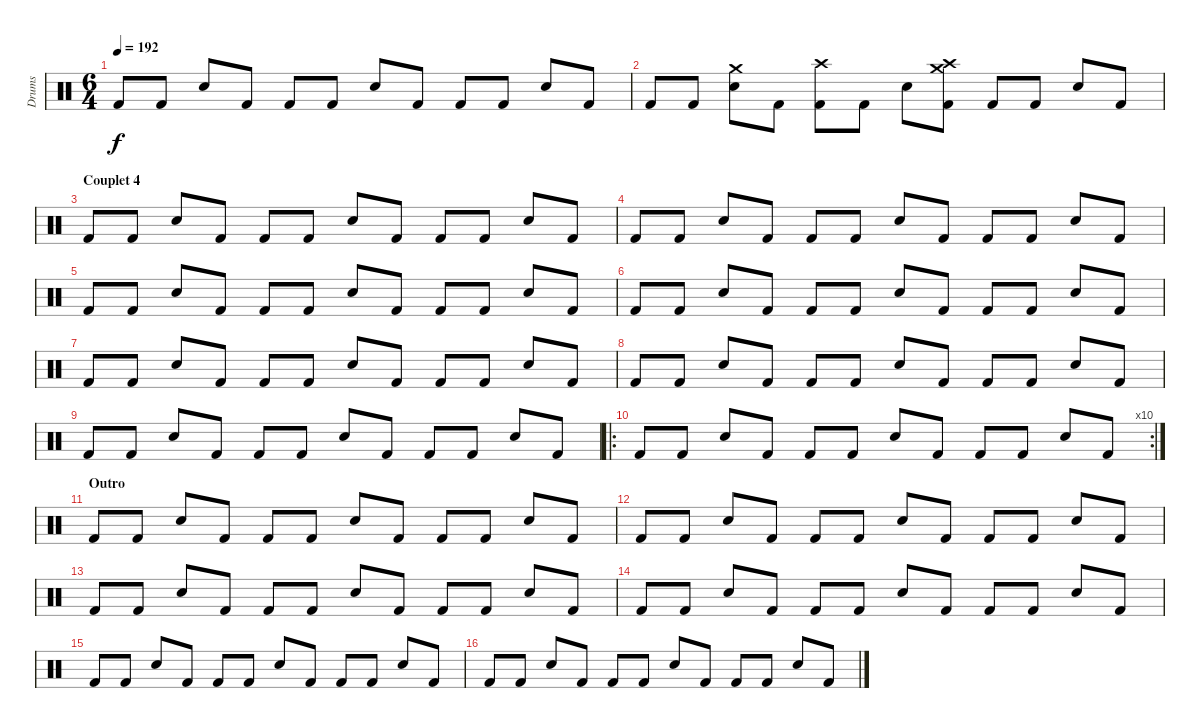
\track ("Drums" "Drums") {instrument percussion}
\staff {score}
\articulation defaults
\ts (6 4)
\tempo 192
\clef neutral
\ks c "Kick (hit) 2".8{dy f} "Kick (hit) 2".8 "Snare (hit) 2".8 "Kick (hit) 2".8 "Kick (hit) 2".8 "Kick (hit) 2".8 "Snare (hit) 2".8 "Kick (hit) 2".8 "Kick (hit) 2".8 "Kick (hit) 2".8 "Snare (hit) 2".8 "Kick (hit) 2".8
|
"Kick (hit) 2".8 "Kick (hit) 2".8 ("Crash medium (hit)" "Snare (hit) 2").8 "Kick (hit) 2".8 ("Crash high (hit)" "Kick (hit) 2").8 "Kick (hit) 2".8 "Snare (hit) 2".8 ("Crash medium (hit)" "Crash high (hit)" "Kick (hit) 2").8 "Kick (hit) 2".8 "Kick (hit) 2".8 "Snare (hit) 2".8 "Kick (hit) 2".8 |
\section ("" "Couplet 4")
"Kick (hit) 2".8 "Kick (hit) 2".8 "Snare (hit) 2".8 "Kick (hit) 2".8 "Kick (hit) 2".8 "Kick (hit) 2".8 "Snare (hit) 2".8 "Kick (hit) 2".8 "Kick (hit) 2".8 "Kick (hit) 2".8 "Snare (hit) 2".8 "Kick (hit) 2".8 |
"Kick (hit) 2".8 "Kick (hit) 2".8 "Snare (hit) 2".8 "Kick (hit) 2".8 "Kick (hit) 2".8 "Kick (hit) 2".8 "Snare (hit) 2".8 "Kick (hit) 2".8 "Kick (hit) 2".8 "Kick (hit) 2".8 "Snare (hit) 2".8 "Kick (hit) 2".8 |
"Kick (hit) 2".8 "Kick (hit) 2".8 "Snare (hit) 2".8 "Kick (hit) 2".8 "Kick (hit) 2".8 "Kick (hit) 2".8 "Snare (hit) 2".8 "Kick (hit) 2".8 "Kick (hit) 2".8 "Kick (hit) 2".8 "Snare (hit) 2".8 "Kick (hit) 2".8 |
"Kick (hit) 2".8 "Kick (hit) 2".8 "Snare (hit) 2".8 "Kick (hit) 2".8 "Kick (hit) 2".8 "Kick (hit) 2".8 "Snare (hit) 2".8 "Kick (hit) 2".8 "Kick (hit) 2".8 "Kick (hit) 2".8 "Snare (hit) 2".8 "Kick (hit) 2".8 |
"Kick (hit) 2".8 "Kick (hit) 2".8 "Snare (hit) 2".8 "Kick (hit) 2".8 "Kick (hit) 2".8 "Kick (hit) 2".8 "Snare (hit) 2".8 "Kick (hit) 2".8 "Kick (hit) 2".8 "Kick (hit) 2".8 "Snare (hit) 2".8 "Kick (hit) 2".8 |
"Kick (hit) 2".8 "Kick (hit) 2".8 "Snare (hit) 2".8 "Kick (hit) 2".8 "Kick (hit) 2".8 "Kick (hit) 2".8 "Snare (hit) 2".8 "Kick (hit) 2".8 "Kick (hit) 2".8 "Kick (hit) 2".8 "Snare (hit) 2".8 "Kick (hit) 2".8 |
"Kick (hit) 2".8 "Kick (hit) 2".8 "Snare (hit) 2".8 "Kick (hit) 2".8 "Kick (hit) 2".8 "Kick (hit) 2".8 "Snare (hit) 2".8 "Kick (hit) 2".8 "Kick (hit) 2".8 "Kick (hit) 2".8 "Snare (hit) 2".8 "Kick (hit) 2".8 |
\ro
\rc 10 "Kick (hit) 2".8 "Kick (hit) 2".8 "Snare (hit) 2".8 "Kick (hit) 2".8 "Kick (hit) 2".8 "Kick (hit) 2".8 "Snare (hit) 2".8 "Kick (hit) 2".8 "Kick (hit) 2".8 "Kick (hit) 2".8 "Snare (hit) 2".8 "Kick (hit) 2".8
|
\section ("" "Outro")
"Kick (hit) 2".8{volume 10} "Kick (hit) 2".8 "Snare (hit) 2".8 "Kick (hit) 2".8 "Kick (hit) 2".8 "Kick (hit) 2".8 "Snare (hit) 2".8 "Kick (hit) 2".8 "Kick (hit) 2".8 "Kick (hit) 2".8 "Snare (hit) 2".8 "Kick (hit) 2".8 |
"Kick (hit) 2".8 "Kick (hit) 2".8 "Snare (hit) 2".8 "Kick (hit) 2".8 "Kick (hit) 2".8 "Kick (hit) 2".8 "Snare (hit) 2".8 "Kick (hit) 2".8 "Kick (hit) 2".8 "Kick (hit) 2".8 "Snare (hit) 2".8 "Kick (hit) 2".8 |
"Kick (hit) 2".8{volume 7} "Kick (hit) 2".8 "Snare (hit) 2".8 "Kick (hit) 2".8 "Kick (hit) 2".8 "Kick (hit) 2".8 "Snare (hit) 2".8 "Kick (hit) 2".8 "Kick (hit) 2".8 "Kick (hit) 2".8 "Snare (hit) 2".8 "Kick (hit) 2".8 |
"Kick (hit) 2".8 "Kick (hit) 2".8 "Snare (hit) 2".8 "Kick (hit) 2".8 "Kick (hit) 2".8 "Kick (hit) 2".8 "Snare (hit) 2".8 "Kick (hit) 2".8 "Kick (hit) 2".8 "Kick (hit) 2".8 "Snare (hit) 2".8 "Kick (hit) 2".8 |
"Kick (hit) 2".8{volume 4} "Kick (hit) 2".8 "Snare (hit) 2".8 "Kick (hit) 2".8 "Kick (hit) 2".8 "Kick (hit) 2".8 "Snare (hit) 2".8 "Kick (hit) 2".8 "Kick (hit) 2".8 "Kick (hit) 2".8 "Snare (hit) 2".8 "Kick (hit) 2".8 |
"Kick (hit) 2".8 "Kick (hit) 2".8 "Snare (hit) 2".8 "Kick (hit) 2".8 "Kick (hit) 2".8 "Kick (hit) 2".8 "Snare (hit) 2".8 "Kick (hit) 2".8 "Kick (hit) 2".8 "Kick (hit) 2".8 "Snare (hit) 2".8 "Kick (hit) 2".8
